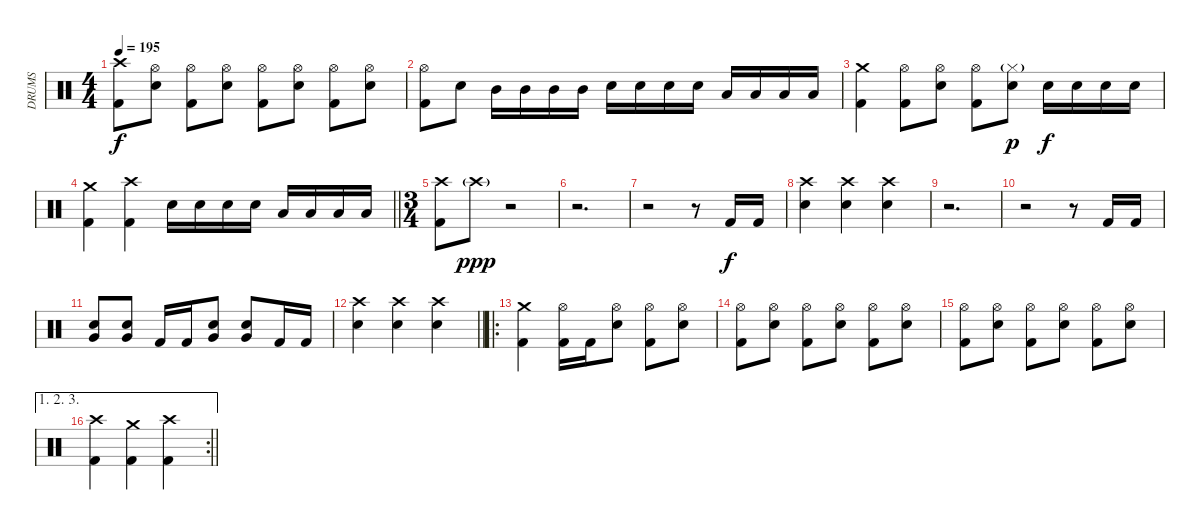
\track ("DRUMS" "DRUMS") {instrument percussion}
\staff {score}
\articulation defaults
\ts (4 4)
\tempo 195
\clef neutral
\ks c
("Crash high (hit)" "Kick (hit) 2").8{dy f} ("Hi-Hat (open)" "Snare (hit) 2").8 ("Hi-Hat (open)" "Kick (hit) 2").8 ("Hi-Hat (open)" "Snare (hit) 2").8 ("Hi-Hat (open)" "Kick (hit) 2").8 ("Hi-Hat (open)" "Snare (hit) 2").8 ("Hi-Hat (open)" "Kick (hit) 2").8 ("Hi-Hat (open)" "Snare (hit) 2").8 |
("Hi-Hat (open)" "Kick (hit) 2").8 "Snare (hit) 2".8 "Mid Tom (hit)".16 "Mid Tom (hit)".16 "Mid Tom (hit)".16 "Mid Tom (hit)".16 "Snare (hit) 2".16 "Snare (hit) 2".16 "Snare (hit) 2".16 "Snare (hit) 2".16 "Low Tom (hit)".16 "Low Tom (hit)".16 "Low Tom (hit)".16 "Low Tom (hit)".16 |
("Crash medium (hit)" "Kick (hit) 2").4 ("Hi-Hat (open)" "Kick (hit) 2").8 ("Hi-Hat (open)" "Snare (hit) 2").8 ("Hi-Hat (open)" "Kick (hit) 2").8 ("Hi-Hat (closed)"{g} "Snare (hit) 2").8{dy p} "Snare (hit) 2".16{dy f} "Snare (hit) 2".16 "Snare (hit) 2".16 "Snare (hit) 2".16 |
\barLineRight lightlight
("Crash medium (hit)" "Kick (hit) 2").4 ("Crash high (hit)" "Kick (hit) 2").4 "Snare (hit) 2".16 "Snare (hit) 2".16 "Snare (hit) 2".16 "Snare (hit) 2".16 "Low Tom (hit)".16 "Low Tom (hit)".16 "Low Tom (hit)".16 "Low Tom (hit)".16 |
\ts (3 4)
("Crash high (hit)" "Kick (hit) 2").8 "Crash high (hit)"{g}.8{dy ppp} r.2 |
r.2{d} |
r.2 r.8 "Kick (hit) 2".16{dy f} "Kick (hit) 2".16 |
("Crash high (hit)" "Snare (hit) 2").4 ("Crash high (hit)" "Snare (hit) 2").4 ("Crash high (hit)" "Snare (hit) 2").4 |
r.2{d} |
r.2 r.8 "Kick (hit) 2".16 "Kick (hit) 2".16 |
("Very Low Tom (hit)" "Snare (hit) 2").8 ("Very Low Tom (hit)" "Snare (hit) 2").8 "Kick (hit) 2".16 "Kick (hit) 2".16 ("Very Low Tom (hit)" "Snare (hit) 2").8 ("Very Low Tom (hit)" "Snare (hit) 2").8 "Kick (hit) 2".16 "Kick (hit) 2".16 |
\barLineRight lightlight
("Crash high (hit)" "Snare (hit) 2").4 ("Crash high (hit)" "Snare (hit) 2").4 ("Crash high (hit)" "Snare (hit) 2").4 |
\ro
("Crash medium (hit)" "Kick (hit) 2").4 ("Hi-Hat (open)" "Kick (hit) 2").16 "Kick (hit) 2".16 ("Hi-Hat (open)" "Snare (hit) 2").8 ("Hi-Hat (open)" "Kick (hit) 2").8 ("Hi-Hat (open)" "Snare (hit) 2").8 |
("Hi-Hat (open)" "Kick (hit) 2").8 ("Hi-Hat (open)" "Snare (hit) 2").8 ("Hi-Hat (open)" "Kick (hit) 2").8 ("Hi-Hat (open)" "Snare (hit) 2").8 ("Hi-Hat (open)" "Kick (hit) 2").8 ("Hi-Hat (open)" "Snare (hit) 2").8 |
("Hi-Hat (open)" "Kick (hit) 2").8 ("Hi-Hat (open)" "Snare (hit) 2").8 ("Hi-Hat (open)" "Kick (hit) 2").8 ("Hi-Hat (open)" "Snare (hit) 2").8 ("Hi-Hat (open)" "Kick (hit) 2").8 ("Hi-Hat (open)" "Snare (hit) 2").8 |
\ae (1 2 3)
\rc 2
\barLineRight lightlight
("Crash high (hit)" "Kick (hit) 2").4 ("Crash medium (hit)" "Kick (hit) 2").4 ("Crash high (hit)" "Kick (hit) 2").4
